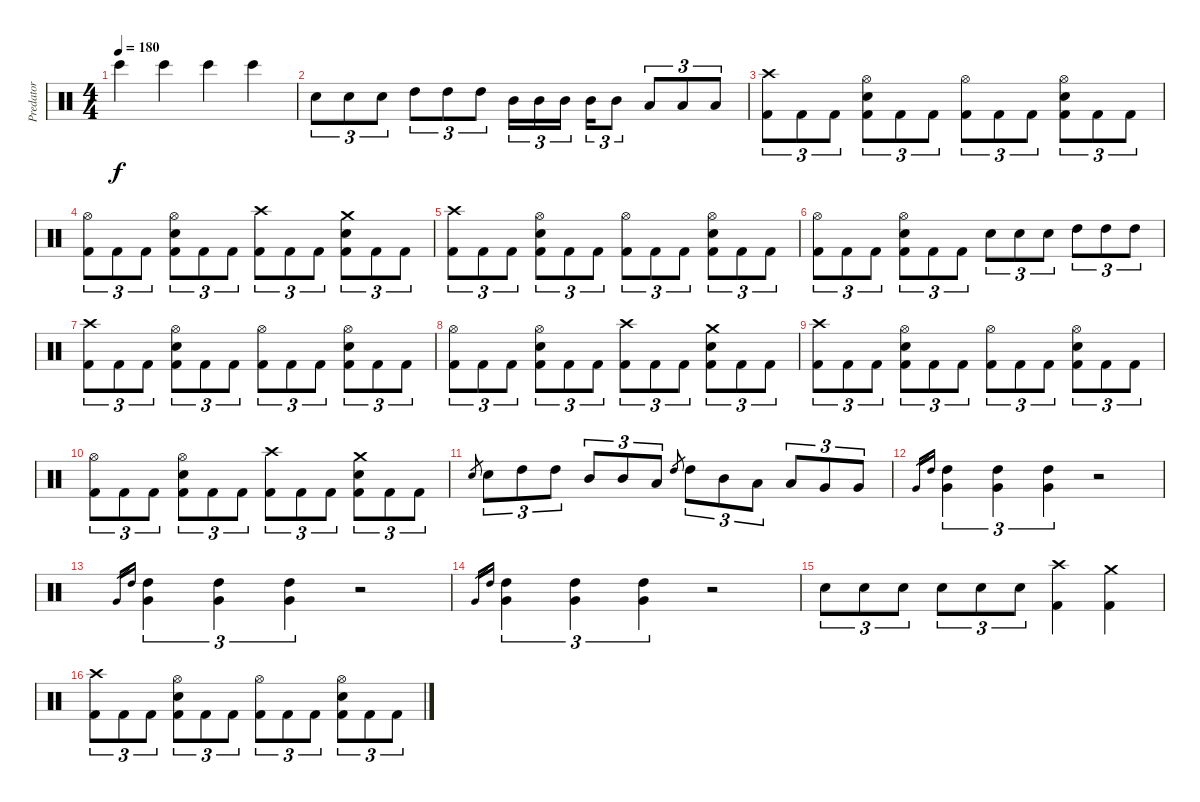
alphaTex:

\track ("Predator" "Predator") {instrument percussion}
\staff {score}
\articulation defaults
\ts (4 4)
\tempo 180
\clef neutral
\ks c "Bongo High (hit)".4{dy f} "Bongo High (hit)".4 "Bongo High (hit)".4 "Bongo High (hit)".4
|
"Electric Snare (hit)".8{tu (3 2)} "Electric Snare (hit)".8{tu (3 2)} "Electric Snare (hit)".8{tu (3 2)} "High Tom (hit)".8{tu (3 2)} "High Tom (hit)".8{tu (3 2)} "High Tom (hit)".8{tu (3 2)} "Mid Tom (hit)".16{tu (3 2)} "Mid Tom (hit)".16{tu (3 2)} "Mid Tom (hit)".16{tu (3 2)} "Mid Tom (hit)".16{tu (3 2)} "Mid Tom (hit)".8{tu (3 2)} "Low Tom (hit)".8{tu (3 2)} "Low Tom (hit)".8{tu (3 2)} "Low Tom (hit)".8{tu (3 2)} |
("Kick (hit) 2" "Crash high (hit)").8{tu (3 2)} "Kick (hit) 2".8{tu (3 2)} "Kick (hit) 2".8{tu (3 2)} ("Kick (hit) 2" "Electric Snare (hit)" "Hi-Hat (open)").8{tu (3 2)} "Kick (hit) 2".8{tu (3 2)} "Kick (hit) 2".8{tu (3 2)} ("Kick (hit) 2" "Hi-Hat (open)").8{tu (3 2)} "Kick (hit) 2".8{tu (3 2)} "Kick (hit) 2".8{tu (3 2)} ("Kick (hit) 2" "Electric Snare (hit)" "Hi-Hat (open)").8{tu (3 2)} "Kick (hit) 2".8{tu (3 2)} "Kick (hit) 2".8{tu (3 2)} |
("Kick (hit) 2" "Hi-Hat (open)").8{tu (3 2)} "Kick (hit) 2".8{tu (3 2)} "Kick (hit) 2".8{tu (3 2)} ("Kick (hit) 2" "Electric Snare (hit)" "Hi-Hat (open)").8{tu (3 2)} "Kick (hit) 2".8{tu (3 2)} "Kick (hit) 2".8{tu (3 2)} ("Kick (hit) 2" "Crash high (hit)").8{tu (3 2)} "Kick (hit) 2".8{tu (3 2)} "Kick (hit) 2".8{tu (3 2)} ("Kick (hit) 2" "Electric Snare (hit)" "Crash medium (hit)").8{tu (3 2)} "Kick (hit) 2".8{tu (3 2)} "Kick (hit) 2".8{tu (3 2)} |
("Kick (hit) 2" "Crash high (hit)").8{tu (3 2)} "Kick (hit) 2".8{tu (3 2)} "Kick (hit) 2".8{tu (3 2)} ("Kick (hit) 2" "Electric Snare (hit)" "Hi-Hat (open)").8{tu (3 2)} "Kick (hit) 2".8{tu (3 2)} "Kick (hit) 2".8{tu (3 2)} ("Kick (hit) 2" "Hi-Hat (open)").8{tu (3 2)} "Kick (hit) 2".8{tu (3 2)} "Kick (hit) 2".8{tu (3 2)} ("Kick (hit) 2" "Electric Snare (hit)" "Hi-Hat (open)").8{tu (3 2)} "Kick (hit) 2".8{tu (3 2)} "Kick (hit) 2".8{tu (3 2)} |
("Kick (hit) 2" "Hi-Hat (open)").8{tu (3 2)} "Kick (hit) 2".8{tu (3 2)} "Kick (hit) 2".8{tu (3 2)} ("Kick (hit) 2" "Electric Snare (hit)" "Hi-Hat (open)").8{tu (3 2)} "Kick (hit) 2".8{tu (3 2)} "Kick (hit) 2".8{tu (3 2)} "Electric Snare (hit)".8{tu (3 2)} "Electric Snare (hit)".8{tu (3 2)} "Electric Snare (hit)".8{tu (3 2)} "High Tom (hit)".8{tu (3 2)} "High Tom (hit)".8{tu (3 2)} "High Tom (hit)".8{tu (3 2)} |
("Kick (hit) 2" "Crash high (hit)").8{tu (3 2)} "Kick (hit) 2".8{tu (3 2)} "Kick (hit) 2".8{tu (3 2)} ("Kick (hit) 2" "Electric Snare (hit)" "Hi-Hat (open)").8{tu (3 2)} "Kick (hit) 2".8{tu (3 2)} "Kick (hit) 2".8{tu (3 2)} ("Kick (hit) 2" "Hi-Hat (open)").8{tu (3 2)} "Kick (hit) 2".8{tu (3 2)} "Kick (hit) 2".8{tu (3 2)} ("Kick (hit) 2" "Electric Snare (hit)" "Hi-Hat (open)").8{tu (3 2)} "Kick (hit) 2".8{tu (3 2)} "Kick (hit) 2".8{tu (3 2)} |
("Kick (hit) 2" "Hi-Hat (open)").8{tu (3 2)} "Kick (hit) 2".8{tu (3 2)} "Kick (hit) 2".8{tu (3 2)} ("Kick (hit) 2" "Electric Snare (hit)" "Hi-Hat (open)").8{tu (3 2)} "Kick (hit) 2".8{tu (3 2)} "Kick (hit) 2".8{tu (3 2)} ("Kick (hit) 2" "Crash high (hit)").8{tu (3 2)} "Kick (hit) 2".8{tu (3 2)} "Kick (hit) 2".8{tu (3 2)} ("Kick (hit) 2" "Electric Snare (hit)" "Crash medium (hit)").8{tu (3 2)} "Kick (hit) 2".8{tu (3 2)} "Kick (hit) 2".8{tu (3 2)} |
("Kick (hit) 2" "Crash high (hit)").8{tu (3 2)} "Kick (hit) 2".8{tu (3 2)} "Kick (hit) 2".8{tu (3 2)} ("Kick (hit) 2" "Electric Snare (hit)" "Hi-Hat (open)").8{tu (3 2)} "Kick (hit) 2".8{tu (3 2)} "Kick (hit) 2".8{tu (3 2)} ("Kick (hit) 2" "Hi-Hat (open)").8{tu (3 2)} "Kick (hit) 2".8{tu (3 2)} "Kick (hit) 2".8{tu (3 2)} ("Kick (hit) 2" "Electric Snare (hit)" "Hi-Hat (open)").8{tu (3 2)} "Kick (hit) 2".8{tu (3 2)} "Kick (hit) 2".8{tu (3 2)} |
("Kick (hit) 2" "Hi-Hat (open)").8{tu (3 2)} "Kick (hit) 2".8{tu (3 2)} "Kick (hit) 2".8{tu (3 2)} ("Kick (hit) 2" "Electric Snare (hit)" "Hi-Hat (open)").8{tu (3 2)} "Kick (hit) 2".8{tu (3 2)} "Kick (hit) 2".8{tu (3 2)} ("Kick (hit) 2" "Crash high (hit)").8{tu (3 2)} "Kick (hit) 2".8{tu (3 2)} "Kick (hit) 2".8{tu (3 2)} ("Kick (hit) 2" "Electric Snare (hit)" "Crash medium (hit)").8{tu (3 2)} "Kick (hit) 2".8{tu (3 2)} "Kick (hit) 2".8{tu (3 2)} |
"Electric Snare (hit)".8{gr} "Electric Snare (hit)".8{tu (3 2)} "High Tom (hit)".8{tu (3 2)} "High Tom (hit)".8{tu (3 2)} "Mid Tom (hit)".8{tu (3 2)} "Mid Tom (hit)".8{tu (3 2)} "Low Tom (hit)".8{tu (3 2)} "High Tom (hit)".8{gr} "High Tom (hit)".8{tu (3 2)} "Mid Tom (hit)".8{tu (3 2)} "Low Tom (hit)".8{tu (3 2)} "Low Tom (hit)".8{tu (3 2)} "Very Low Tom (hit)".8{tu (3 2)} "Very Low Tom (hit)".8{tu (3 2)} |
"Very Low Tom (hit)".16{gr} "High Tom (hit)".16{gr} ("Very Low Tom (hit)" "High Tom (hit)").4{tu (3 2)} ("Very Low Tom (hit)" "High Tom (hit)").4{tu (3 2)} ("Very Low Tom (hit)" "High Tom (hit)").4{tu (3 2)} r.2 |
"Very Low Tom (hit)".16{gr} "High Tom (hit)".16{gr} ("Very Low Tom (hit)" "High Tom (hit)").4{tu (3 2)} ("Very Low Tom (hit)" "High Tom (hit)").4{tu (3 2)} ("Very Low Tom (hit)" "High Tom (hit)").4{tu (3 2)} r.2 |
"Very Low Tom (hit)".16{gr} "High Tom (hit)".16{gr} ("Very Low Tom (hit)" "High Tom (hit)").4{tu (3 2)} ("Very Low Tom (hit)" "High Tom (hit)").4{tu (3 2)} ("Very Low Tom (hit)" "High Tom (hit)").4{tu (3 2)} r.2 |
"Electric Snare (hit)".8{tu (3 2)} "Electric Snare (hit)".8{tu (3 2)} "Electric Snare (hit)".8{tu (3 2)} "Electric Snare (hit)".8{tu (3 2)} "Electric Snare (hit)".8{tu (3 2)} "Electric Snare (hit)".8{tu (3 2)} ("Kick (hit) 2" "Crash high (hit)").4 ("Kick (hit) 2" "Crash medium (hit)").4 |
("Kick (hit) 2" "Crash high (hit)").8{tu (3 2)} "Kick (hit) 2".8{tu (3 2)} "Kick (hit) 2".8{tu (3 2)} ("Kick (hit) 2" "Electric Snare (hit)" "Hi-Hat (open)").8{tu (3 2)} "Kick (hit) 2".8{tu (3 2)} "Kick (hit) 2".8{tu (3 2)} ("Kick (hit) 2" "Hi-Hat (open)").8{tu (3 2)} "Kick (hit) 2".8{tu (3 2)} "Kick (hit) 2".8{tu (3 2)} ("Kick (hit) 2" "Electric Snare (hit)" "Hi-Hat (open)").8{tu (3 2)} "Kick (hit) 2".8{tu (3 2)} "Kick (hit) 2".8{tu (3 2)}
